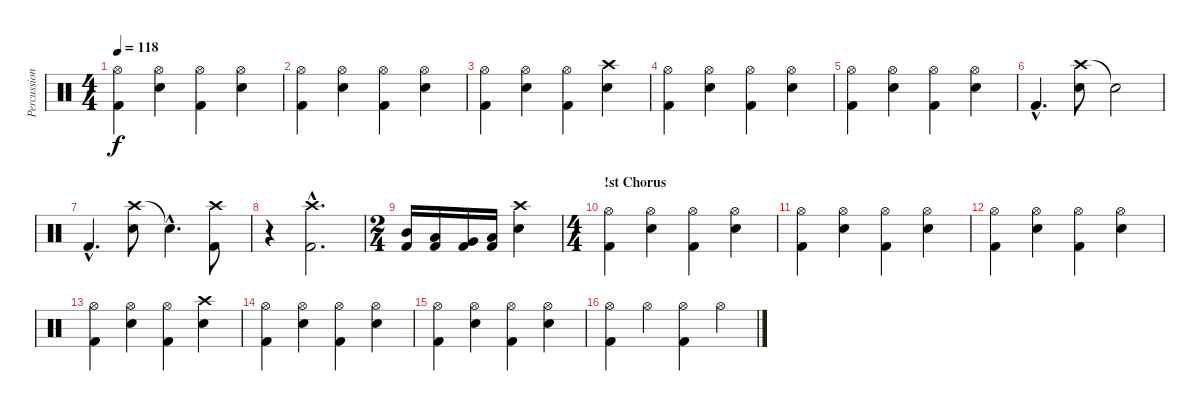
\track ("Percussion" "Percussion") {instrument percussion}
\staff {score}
\articulation defaults
\ts (4 4)
\tempo 118
\clef neutral
\ks c
("Hi-Hat (open)" "Kick (hit) 2").4{dy f} ("Hi-Hat (open)" "Snare (hit) 2").4 ("Hi-Hat (open)" "Kick (hit) 2").4 ("Hi-Hat (open)" "Snare (hit) 2").4 |
("Hi-Hat (open)" "Kick (hit) 2").4 ("Hi-Hat (open)" "Snare (hit) 2").4 ("Hi-Hat (open)" "Kick (hit) 2").4 ("Hi-Hat (open)" "Snare (hit) 2").4 |
("Hi-Hat (open)" "Kick (hit) 2").4 ("Hi-Hat (open)" "Snare (hit) 2").4 ("Hi-Hat (open)" "Kick (hit) 2").4 ("Crash high (hit)" "Snare (hit) 2").4 |
("Hi-Hat (open)" "Kick (hit) 2").4 ("Hi-Hat (open)" "Snare (hit) 2").4 ("Hi-Hat (open)" "Kick (hit) 2").4 ("Hi-Hat (open)" "Snare (hit) 2").4 |
("Hi-Hat (open)" "Kick (hit) 2").4 ("Hi-Hat (open)" "Snare (hit) 2").4 ("Hi-Hat (open)" "Kick (hit) 2").4 ("Hi-Hat (open)" "Snare (hit) 2").4 |
"Kick (hit) 2"{hac}.4{d} ("Crash high (hit)" "Snare (hit) 2").8 "Snare (hit)"{t}.2 |
"Kick (hit) 2"{hac}.4{d} ("Crash high (hit)" "Snare (hit) 2").8 "Snare (hit)"{hac t}.4{d} ("Crash high (hit)" "Kick (hit) 2").8 |
r.4 ("Crash high (hit)"{hac} "Kick (hit) 2"{hac}).2{d} |
\ts (2 4)
("Mid Tom (hit)" "Kick (hit) 2").16 ("Low Tom (hit)" "Kick (hit) 2").16 ("Very Low Tom (hit)" "Kick (hit) 2").16 ("Low Floor Tom (hit)" "Kick (hit) 2").16 ("Crash high (hit)" "Snare (hit) 2").4 |
\ts (4 4)
\section ("" "!st Chorus")
("Hi-Hat (open)" "Kick (hit) 2").4 ("Hi-Hat (open)" "Snare (hit) 2").4 ("Hi-Hat (open)" "Kick (hit) 2").4 ("Hi-Hat (open)" "Snare (hit) 2").4 |
("Hi-Hat (open)" "Kick (hit) 2").4 ("Hi-Hat (open)" "Snare (hit) 2").4 ("Hi-Hat (open)" "Kick (hit) 2").4 ("Hi-Hat (open)" "Snare (hit) 2").4 |
("Hi-Hat (open)" "Kick (hit) 2").4 ("Hi-Hat (open)" "Snare (hit) 2").4 ("Hi-Hat (open)" "Kick (hit) 2").4 ("Hi-Hat (open)" "Snare (hit) 2").4 |
("Hi-Hat (open)" "Kick (hit) 2").4 ("Hi-Hat (open)" "Snare (hit) 2").4 ("Hi-Hat (open)" "Kick (hit) 2").4 ("Crash high (hit)" "Snare (hit) 2").4 |
("Hi-Hat (open)" "Kick (hit) 2").4 ("Hi-Hat (open)" "Snare (hit) 2").4 ("Hi-Hat (open)" "Kick (hit) 2").4 ("Hi-Hat (open)" "Snare (hit) 2").4 |
("Hi-Hat (open)" "Kick (hit) 2").4 ("Hi-Hat (open)" "Snare (hit) 2").4 ("Hi-Hat (open)" "Kick (hit) 2").4 ("Hi-Hat (open)" "Snare (hit) 2").4 |
("Hi-Hat (open)" "Kick (hit) 2").4 "Hi-Hat (open)".4 ("Hi-Hat (open)" "Kick (hit) 2").4 "Hi-Hat (open)".4
